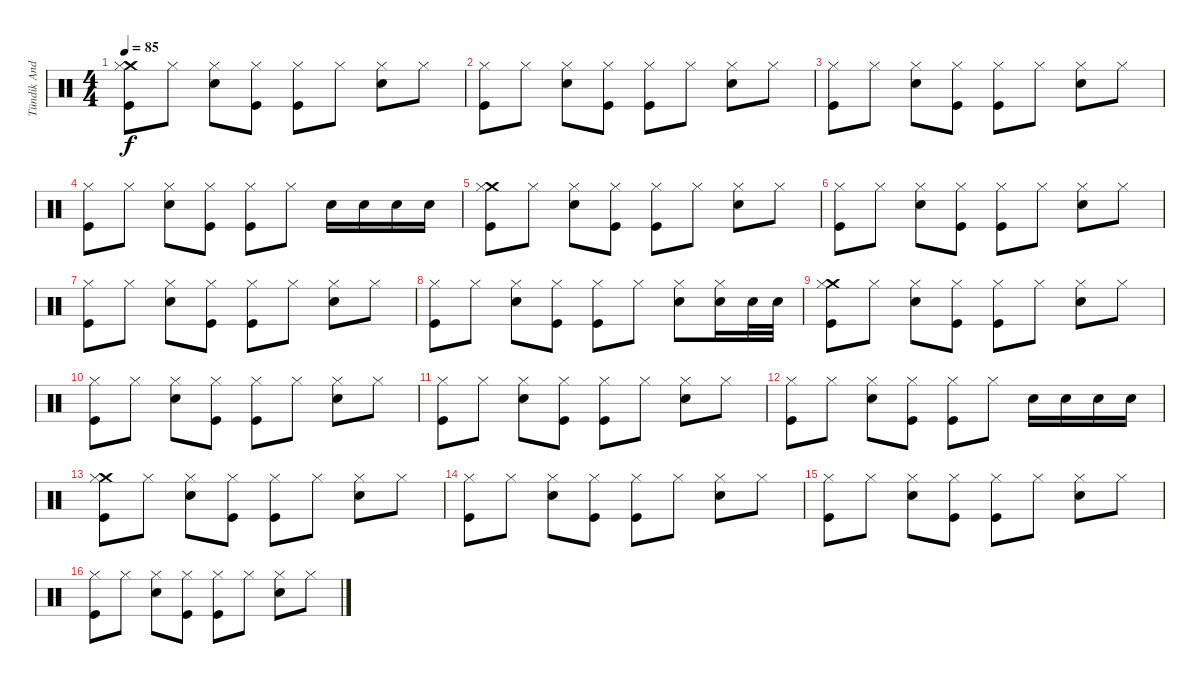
\track ("Tündik András - Dob" "Tündik And") {instrument percussion}
\staff {score}
\articulation defaults
\ts (4 4)
\tempo 85
\clef neutral
\ks c
("Crash medium (hit)" "Hi-Hat (closed)" "Kick (hit)").8{dy f} "Hi-Hat (closed)".8 ("Snare (hit) 2" "Hi-Hat (closed)").8 ("Hi-Hat (closed)" "Kick (hit)").8 ("Hi-Hat (closed)" "Kick (hit)").8 "Hi-Hat (closed)".8 ("Snare (hit) 2" "Hi-Hat (closed)").8 "Hi-Hat (closed)".8 |
("Hi-Hat (closed)" "Kick (hit)").8 "Hi-Hat (closed)".8 ("Snare (hit) 2" "Hi-Hat (closed)").8 ("Hi-Hat (closed)" "Kick (hit)").8 ("Hi-Hat (closed)" "Kick (hit)").8 "Hi-Hat (closed)".8 ("Snare (hit) 2" "Hi-Hat (closed)").8 "Hi-Hat (closed)".8 |
("Hi-Hat (closed)" "Kick (hit)").8 "Hi-Hat (closed)".8 ("Snare (hit) 2" "Hi-Hat (closed)").8 ("Hi-Hat (closed)" "Kick (hit)").8 ("Hi-Hat (closed)" "Kick (hit)").8 "Hi-Hat (closed)".8 ("Snare (hit) 2" "Hi-Hat (closed)").8 "Hi-Hat (closed)".8 |
("Hi-Hat (closed)" "Kick (hit)").8 "Hi-Hat (closed)".8 ("Snare (hit) 2" "Hi-Hat (closed)").8 ("Hi-Hat (closed)" "Kick (hit)").8 ("Hi-Hat (closed)" "Kick (hit)").8 "Hi-Hat (closed)".8 "Electric Snare (hit)".16 "Snare (hit) 2".16 "Electric Snare (hit)".16 "Snare (hit) 2".16 |
("Crash medium (hit)" "Hi-Hat (closed)" "Kick (hit)").8 "Hi-Hat (closed)".8 ("Snare (hit) 2" "Hi-Hat (closed)").8 ("Hi-Hat (closed)" "Kick (hit)").8 ("Hi-Hat (closed)" "Kick (hit)").8 "Hi-Hat (closed)".8 ("Snare (hit) 2" "Hi-Hat (closed)").8 "Hi-Hat (closed)".8 |
("Hi-Hat (closed)" "Kick (hit)").8 "Hi-Hat (closed)".8 ("Snare (hit) 2" "Hi-Hat (closed)").8 ("Hi-Hat (closed)" "Kick (hit)").8 ("Hi-Hat (closed)" "Kick (hit)").8 "Hi-Hat (closed)".8 ("Snare (hit) 2" "Hi-Hat (closed)").8 "Hi-Hat (closed)".8 |
("Hi-Hat (closed)" "Kick (hit)").8 "Hi-Hat (closed)".8 ("Snare (hit) 2" "Hi-Hat (closed)").8 ("Hi-Hat (closed)" "Kick (hit)").8 ("Hi-Hat (closed)" "Kick (hit)").8 "Hi-Hat (closed)".8 ("Snare (hit) 2" "Hi-Hat (closed)").8 "Hi-Hat (closed)".8 |
("Hi-Hat (closed)" "Kick (hit)").8 "Hi-Hat (closed)".8 ("Snare (hit) 2" "Hi-Hat (closed)").8 ("Hi-Hat (closed)" "Kick (hit)").8 ("Hi-Hat (closed)" "Kick (hit)").8 "Hi-Hat (closed)".8 ("Snare (hit) 2" "Hi-Hat (closed)").8 ("Snare (hit) 2" "Hi-Hat (closed)").16 "Snare (hit) 2".32 "Snare (hit) 2".32 |
("Crash medium (hit)" "Hi-Hat (closed)" "Kick (hit)").8 "Hi-Hat (closed)".8 ("Snare (hit) 2" "Hi-Hat (closed)").8 ("Hi-Hat (closed)" "Kick (hit)").8 ("Hi-Hat (closed)" "Kick (hit)").8 "Hi-Hat (closed)".8 ("Snare (hit) 2" "Hi-Hat (closed)").8 "Hi-Hat (closed)".8 |
("Hi-Hat (closed)" "Kick (hit)").8 "Hi-Hat (closed)".8 ("Snare (hit) 2" "Hi-Hat (closed)").8 ("Hi-Hat (closed)" "Kick (hit)").8 ("Hi-Hat (closed)" "Kick (hit)").8 "Hi-Hat (closed)".8 ("Snare (hit) 2" "Hi-Hat (closed)").8 "Hi-Hat (closed)".8 |
("Hi-Hat (closed)" "Kick (hit)").8 "Hi-Hat (closed)".8 ("Snare (hit) 2" "Hi-Hat (closed)").8 ("Hi-Hat (closed)" "Kick (hit)").8 ("Hi-Hat (closed)" "Kick (hit)").8 "Hi-Hat (closed)".8 ("Snare (hit) 2" "Hi-Hat (closed)").8 "Hi-Hat (closed)".8 |
("Hi-Hat (closed)" "Kick (hit)").8 "Hi-Hat (closed)".8 ("Snare (hit) 2" "Hi-Hat (closed)").8 ("Hi-Hat (closed)" "Kick (hit)").8 ("Hi-Hat (closed)" "Kick (hit)").8 "Hi-Hat (closed)".8 "Snare (hit) 2".16 "Snare (hit) 2".16 "Snare (hit) 2".16 "Snare (hit) 2".16 |
("Crash medium (hit)" "Hi-Hat (closed)" "Kick (hit)").8 "Hi-Hat (closed)".8 ("Snare (hit) 2" "Hi-Hat (closed)").8 ("Hi-Hat (closed)" "Kick (hit)").8 ("Hi-Hat (closed)" "Kick (hit)").8 "Hi-Hat (closed)".8 ("Snare (hit) 2" "Hi-Hat (closed)").8 "Hi-Hat (closed)".8 |
("Hi-Hat (closed)" "Kick (hit)").8 "Hi-Hat (closed)".8 ("Snare (hit) 2" "Hi-Hat (closed)").8 ("Hi-Hat (closed)" "Kick (hit)").8 ("Hi-Hat (closed)" "Kick (hit)").8 "Hi-Hat (closed)".8 ("Snare (hit) 2" "Hi-Hat (closed)").8 "Hi-Hat (closed)".8 |
("Hi-Hat (closed)" "Kick (hit)").8 "Hi-Hat (closed)".8 ("Snare (hit) 2" "Hi-Hat (closed)").8 ("Hi-Hat (closed)" "Kick (hit)").8 ("Hi-Hat (closed)" "Kick (hit)").8 "Hi-Hat (closed)".8 ("Snare (hit) 2" "Hi-Hat (closed)").8 "Hi-Hat (closed)".8 |
("Hi-Hat (closed)" "Kick (hit)").8 "Hi-Hat (closed)".8 ("Snare (hit) 2" "Hi-Hat (closed)").8 ("Hi-Hat (closed)" "Kick (hit)").8 ("Hi-Hat (closed)" "Kick (hit)").8 "Hi-Hat (closed)".8 ("Snare (hit) 2" "Hi-Hat (closed)").8 "Hi-Hat (closed)".8
